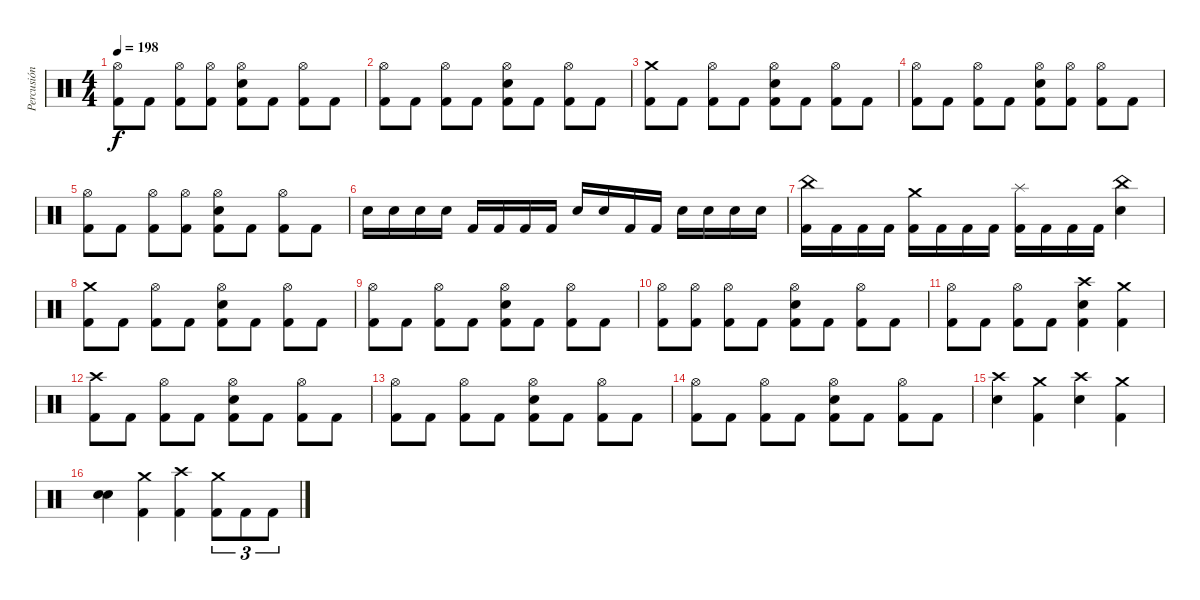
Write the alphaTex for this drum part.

\track ("Percusión" "Percusión") {instrument percussion}
\staff {score}
\articulation defaults
\ts (4 4)
\tempo 198
\clef neutral
\ks c
("Hi-Hat (open)" "Kick (hit) 2").8{dy f} "Kick (hit) 2".8 ("Hi-Hat (open)" "Kick (hit) 2").8 ("Hi-Hat (open)" "Kick (hit) 2").8 ("Hi-Hat (open)" "Electric Snare (hit)" "Kick (hit) 2").8 "Kick (hit) 2".8 ("Hi-Hat (open)" "Kick (hit) 2").8 "Kick (hit) 2".8 |
("Hi-Hat (open)" "Kick (hit) 2").8 "Kick (hit) 2".8 ("Hi-Hat (open)" "Kick (hit) 2").8 "Kick (hit) 2".8 ("Hi-Hat (open)" "Electric Snare (hit)" "Kick (hit) 2").8 "Kick (hit) 2".8 ("Hi-Hat (open)" "Kick (hit) 2").8 "Kick (hit) 2".8 |
("Crash medium (hit)" "Kick (hit) 2").8 "Kick (hit) 2".8 ("Hi-Hat (open)" "Kick (hit) 2").8 "Kick (hit) 2".8 ("Hi-Hat (open)" "Electric Snare (hit)" "Kick (hit) 2").8 "Kick (hit) 2".8 ("Hi-Hat (open)" "Kick (hit) 2").8 "Kick (hit) 2".8 |
("Hi-Hat (open)" "Kick (hit) 2").8 "Kick (hit) 2".8 ("Hi-Hat (open)" "Kick (hit) 2").8 "Kick (hit) 2".8 ("Hi-Hat (open)" "Electric Snare (hit)" "Kick (hit) 2").8 ("Hi-Hat (open)" "Kick (hit) 2").8 ("Hi-Hat (open)" "Kick (hit) 2").8 "Kick (hit) 2".8 |
("Hi-Hat (open)" "Kick (hit) 2").8 "Kick (hit) 2".8 ("Hi-Hat (open)" "Kick (hit) 2").8 ("Hi-Hat (open)" "Kick (hit) 2").8 ("Hi-Hat (open)" "Electric Snare (hit)" "Kick (hit) 2").8 "Kick (hit) 2".8 ("Hi-Hat (open)" "Kick (hit) 2").8 "Kick (hit) 2".8 |
"Electric Snare (hit)".16 "Electric Snare (hit)".16 "Electric Snare (hit)".16 "Electric Snare (hit)".16 "Kick (hit) 2".16 "Kick (hit) 2".16 "Kick (hit) 2".16 "Kick (hit) 2".16 "Electric Snare (hit)".16 "Electric Snare (hit)".16 "Kick (hit) 2".16 "Kick (hit) 2".16 "Electric Snare (hit)".16 "Electric Snare (hit)".16 "Electric Snare (hit)".16 "Electric Snare (hit)".16 |
("China (hit)" "Kick (hit) 2").16 "Kick (hit) 2".16 "Kick (hit) 2".16 "Kick (hit) 2".16 ("Crash medium (hit)" "Kick (hit) 2").16 "Kick (hit) 2".16 "Kick (hit) 2".16 "Kick (hit) 2".16 ("Splash (hit)" "Kick (hit) 2").16 "Kick (hit) 2".16 "Kick (hit) 2".16 "Kick (hit) 2".16 ("China (hit)" "Electric Snare (hit)").4 |
("Crash medium (hit)" "Kick (hit) 2").8 "Kick (hit) 2".8 ("Hi-Hat (open)" "Kick (hit) 2").8 "Kick (hit) 2".8 ("Hi-Hat (open)" "Electric Snare (hit)" "Kick (hit) 2").8 "Kick (hit) 2".8 ("Hi-Hat (open)" "Kick (hit) 2").8 "Kick (hit) 2".8 |
("Hi-Hat (open)" "Kick (hit) 2").8 "Kick (hit) 2".8 ("Hi-Hat (open)" "Kick (hit) 2").8 "Kick (hit) 2".8 ("Hi-Hat (open)" "Electric Snare (hit)" "Kick (hit) 2").8 "Kick (hit) 2".8 ("Hi-Hat (open)" "Kick (hit) 2").8 "Kick (hit) 2".8 |
("Hi-Hat (open)" "Kick (hit) 2").8 ("Hi-Hat (open)" "Kick (hit) 2").8 ("Hi-Hat (open)" "Kick (hit) 2").8 "Kick (hit) 2".8 ("Hi-Hat (open)" "Electric Snare (hit)" "Kick (hit) 2").8 "Kick (hit) 2".8 ("Hi-Hat (open)" "Kick (hit) 2").8 "Kick (hit) 2".8 |
("Hi-Hat (open)" "Kick (hit) 2").8 "Kick (hit) 2".8 ("Hi-Hat (open)" "Kick (hit) 2").8 "Kick (hit) 2".8 ("Crash high (hit)" "Electric Snare (hit)" "Kick (hit) 2").4 ("Crash medium (hit)" "Kick (hit) 2").4 |
("Crash high (hit)" "Kick (hit) 2").8 "Kick (hit) 2".8 ("Hi-Hat (open)" "Kick (hit) 2").8 "Kick (hit) 2".8 ("Hi-Hat (open)" "Electric Snare (hit)" "Kick (hit) 2").8 "Kick (hit) 2".8 ("Hi-Hat (open)" "Kick (hit) 2").8 "Kick (hit) 2".8 |
("Hi-Hat (open)" "Kick (hit) 2").8 "Kick (hit) 2".8 ("Hi-Hat (open)" "Kick (hit) 2").8 "Kick (hit) 2".8 ("Hi-Hat (open)" "Electric Snare (hit)" "Kick (hit) 2").8 "Kick (hit) 2".8 ("Hi-Hat (open)" "Kick (hit) 2").8 "Kick (hit) 2".8 |
("Hi-Hat (open)" "Kick (hit) 2").8 "Kick (hit) 2".8 ("Hi-Hat (open)" "Kick (hit) 2").8 "Kick (hit) 2".8 ("Hi-Hat (open)" "Electric Snare (hit)" "Kick (hit) 2").8 "Kick (hit) 2".8 ("Hi-Hat (open)" "Kick (hit) 2").8 "Kick (hit) 2".8 |
("Crash high (hit)" "Electric Snare (hit)").4 ("Crash medium (hit)" "Kick (hit) 2").4 ("Crash high (hit)" "Electric Snare (hit)").4 ("Crash medium (hit)" "Kick (hit) 2").4 |
("Electric Snare (hit)" "Electric Snare (hit)").4{bd 120} ("Crash medium (hit)" "Kick (hit) 2").4 ("Crash high (hit)" "Kick (hit) 2").4 ("Crash medium (hit)" "Kick (hit) 2").8{tu (3 2)} "Kick (hit) 2".8{tu (3 2)} "Kick (hit) 2".8{tu (3 2)}
